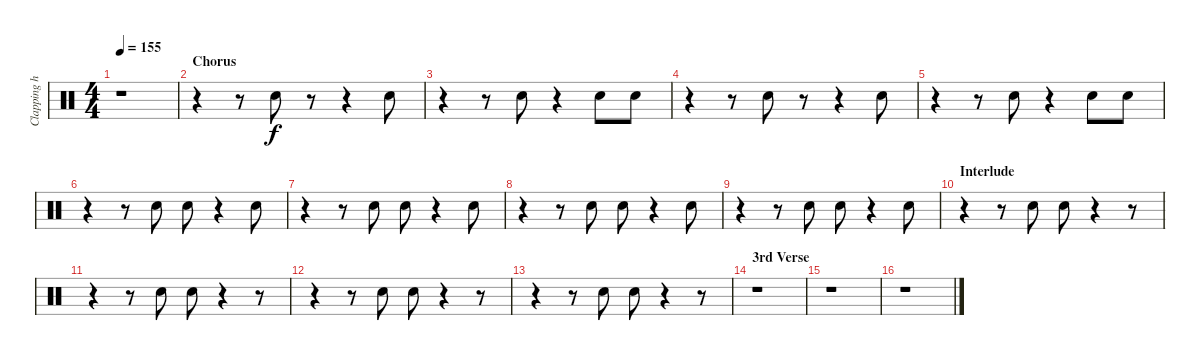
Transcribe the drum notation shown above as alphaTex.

\track ("Clapping hands" "Clapping h") {instrument percussion}
\staff {score}
\articulation defaults
\ts (4 4)
\tempo 155
\clef neutral
\ks c
r.1{dy f} |
\section ("" "Chorus")
r.4 r.8 "Hand Clap (hit)".8 r.8 r.4 "Hand Clap (hit)".8 |
r.4 r.8 "Hand Clap (hit)".8 r.4 "Hand Clap (hit)".8 "Hand Clap (hit)".8 |
r.4 r.8 "Hand Clap (hit)".8 r.8 r.4 "Hand Clap (hit)".8 |
r.4 r.8 "Hand Clap (hit)".8 r.4 "Hand Clap (hit)".8 "Hand Clap (hit)".8 |
r.4 r.8 "Hand Clap (hit)".8 "Hand Clap (hit)".8 r.4 "Hand Clap (hit)".8 |
r.4 r.8 "Hand Clap (hit)".8 "Hand Clap (hit)".8 r.4 "Hand Clap (hit)".8 |
r.4 r.8 "Hand Clap (hit)".8 "Hand Clap (hit)".8 r.4 "Hand Clap (hit)".8 |
r.4 r.8 "Hand Clap (hit)".8 "Hand Clap (hit)".8 r.4 "Hand Clap (hit)".8 |
\section ("" "Interlude")
r.4 r.8 "Hand Clap (hit)".8 "Hand Clap (hit)".8 r.4 r.8 |
r.4 r.8 "Hand Clap (hit)".8 "Hand Clap (hit)".8 r.4 r.8 |
r.4 r.8 "Hand Clap (hit)".8 "Hand Clap (hit)".8 r.4 r.8 |
r.4 r.8 "Hand Clap (hit)".8 "Hand Clap (hit)".8 r.4 r.8 |
\section ("" "3rd Verse")
r.1 |
r.1 |
r.1
